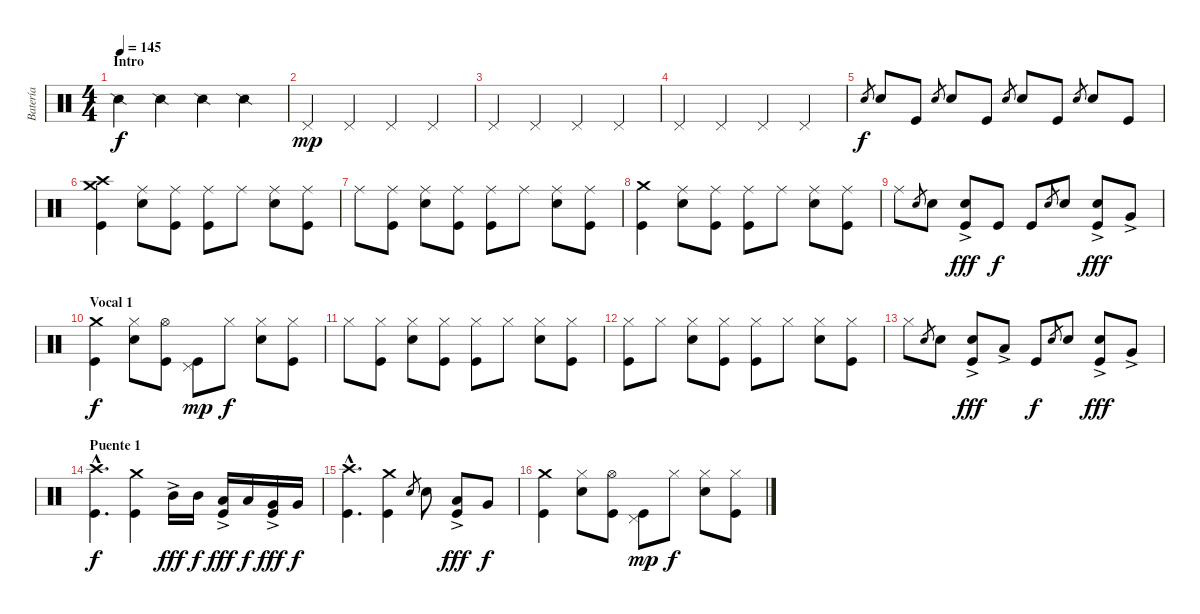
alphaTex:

\track ("Batería" "Batería") {instrument percussion}
\staff {score}
\articulation defaults
\ts (4 4)
\section ("" "Intro")
\tempo 145
\clef neutral
\ks c "Snare (side stick) 2".4{dy f} "Snare (side stick) 2".4 "Snare (side stick) 2".4 "Snare (side stick) 2".4
|
"Pedal Hi-Hat (hit)".4{dy mp} "Pedal Hi-Hat (hit)".4 "Pedal Hi-Hat (hit)".4 "Pedal Hi-Hat (hit)".4 |
"Pedal Hi-Hat (hit)".4 "Pedal Hi-Hat (hit)".4 "Pedal Hi-Hat (hit)".4 "Pedal Hi-Hat (hit)".4 |
"Pedal Hi-Hat (hit)".4 "Pedal Hi-Hat (hit)".4 "Pedal Hi-Hat (hit)".4 "Pedal Hi-Hat (hit)".4 |
"Electric Snare (hit)".8{gr dy f} "Electric Snare (hit)".8 "Kick (hit)".8 "Electric Snare (hit)".8{gr} "Electric Snare (hit)".8 "Kick (hit)".8 "Electric Snare (hit)".8{gr} "Electric Snare (hit)".8 "Kick (hit)".8 "Electric Snare (hit)".8{gr} "Electric Snare (hit)".8 "Kick (hit)".8 |
("Kick (hit)" "Crash medium (hit)" "Crash high (hit)").4 ("Electric Snare (hit)" "Ride (middle)").8 ("Kick (hit)" "Ride (middle)").8 ("Kick (hit)" "Ride (middle)").8 "Ride (middle)".8 ("Electric Snare (hit)" "Ride (middle)").8 ("Kick (hit)" "Ride (middle)").8 |
"Ride (middle)".8 ("Kick (hit)" "Ride (middle)").8 ("Electric Snare (hit)" "Ride (middle)").8 ("Kick (hit)" "Ride (middle)").8 ("Kick (hit)" "Ride (middle)").8 "Ride (middle)".8 ("Electric Snare (hit)" "Ride (middle)").8 ("Kick (hit)" "Ride (middle)").8 |
("Kick (hit)" "Crash medium (hit)").4 ("Electric Snare (hit)" "Ride (middle)").8 ("Kick (hit)" "Ride (middle)").8 ("Kick (hit)" "Ride (middle)").8 "Ride (middle)".8 ("Electric Snare (hit)" "Ride (middle)").8 ("Kick (hit)" "Ride (middle)").8 |
"Ride (middle)".8 "Electric Snare (hit)".8{gr} "Electric Snare (hit)".8 ("Kick (hit)" "Electric Snare (hit)"{ac}).8{dy fff} "Kick (hit)".8{dy f} "Kick (hit)".8 "Electric Snare (hit)".8{gr} "Electric Snare (hit)".8 ("Kick (hit)" "Electric Snare (hit)"{ac}).8{dy fff} "Very Low Tom (hit)"{ac}.8 |
\section ("" "Vocal 1")
("Kick (hit)" "Crash medium (hit)").4{dy f} ("Electric Snare (hit)" "Hi-Hat (closed)").8 ("Kick (hit)" "Hi-Hat (open)").8 ("Kick (hit)" "Pedal Hi-Hat (hit)").8{dy mp} "Hi-Hat (closed)".8{dy f} ("Electric Snare (hit)" "Hi-Hat (closed)").8 ("Kick (hit)" "Hi-Hat (closed)").8 |
"Hi-Hat (closed)".8 ("Kick (hit)" "Hi-Hat (closed)").8 ("Electric Snare (hit)" "Hi-Hat (closed)").8 ("Kick (hit)" "Hi-Hat (closed)").8 ("Kick (hit)" "Hi-Hat (closed)").8 "Hi-Hat (closed)".8 ("Electric Snare (hit)" "Hi-Hat (closed)").8 ("Kick (hit)" "Hi-Hat (closed)").8 |
("Kick (hit)" "Hi-Hat (closed)").8 "Hi-Hat (closed)".8 ("Electric Snare (hit)" "Hi-Hat (closed)").8 ("Kick (hit)" "Hi-Hat (closed)").8 ("Kick (hit)" "Hi-Hat (closed)").8 "Hi-Hat (closed)".8 ("Electric Snare (hit)" "Hi-Hat (closed)").8 ("Kick (hit)" "Hi-Hat (closed)").8 |
"Hi-Hat (closed)".8 "Electric Snare (hit)".8{gr} "Electric Snare (hit)".8 ("Kick (hit)" "Electric Snare (hit)"{ac}).8{dy fff} "Low Tom (hit)"{ac}.8 "Kick (hit)".8{dy f} "Electric Snare (hit)".8{gr} "Electric Snare (hit)".8 ("Kick (hit)" "Electric Snare (hit)"{ac}).8{dy fff} "Very Low Tom (hit)"{ac}.8 |
\section ("" "Puente 1")
("Kick (hit)"{hac} "Crash high (hit)"{hac}).4{d dy f} ("Kick (hit)" "Crash medium (hit)").4 "Mid Tom (hit)"{ac}.16{dy fff} "Mid Tom (hit)".16{dy f} ("Kick (hit)" "Low Tom (hit)"{ac}).16{dy fff} "Low Tom (hit)".16{dy f} ("Kick (hit)" "Very Low Tom (hit)"{ac}).16{dy fff} "Very Low Tom (hit)".16{dy f} |
("Kick (hit)"{hac} "Crash high (hit)"{hac}).4{d} ("Kick (hit)" "Crash medium (hit)").4 "Electric Snare (hit)".8{gr} "Electric Snare (hit)".8 ("Kick (hit)" "Low Tom (hit)"{ac}).8{dy fff} "Very Low Tom (hit)".8{dy f} |
("Kick (hit)" "Crash medium (hit)").4 ("Electric Snare (hit)" "Hi-Hat (closed)").8 ("Kick (hit)" "Hi-Hat (open)").8 ("Kick (hit)" "Pedal Hi-Hat (hit)").8{dy mp} "Hi-Hat (closed)".8{dy f} ("Electric Snare (hit)" "Hi-Hat (closed)").8 ("Kick (hit)" "Hi-Hat (closed)").8
